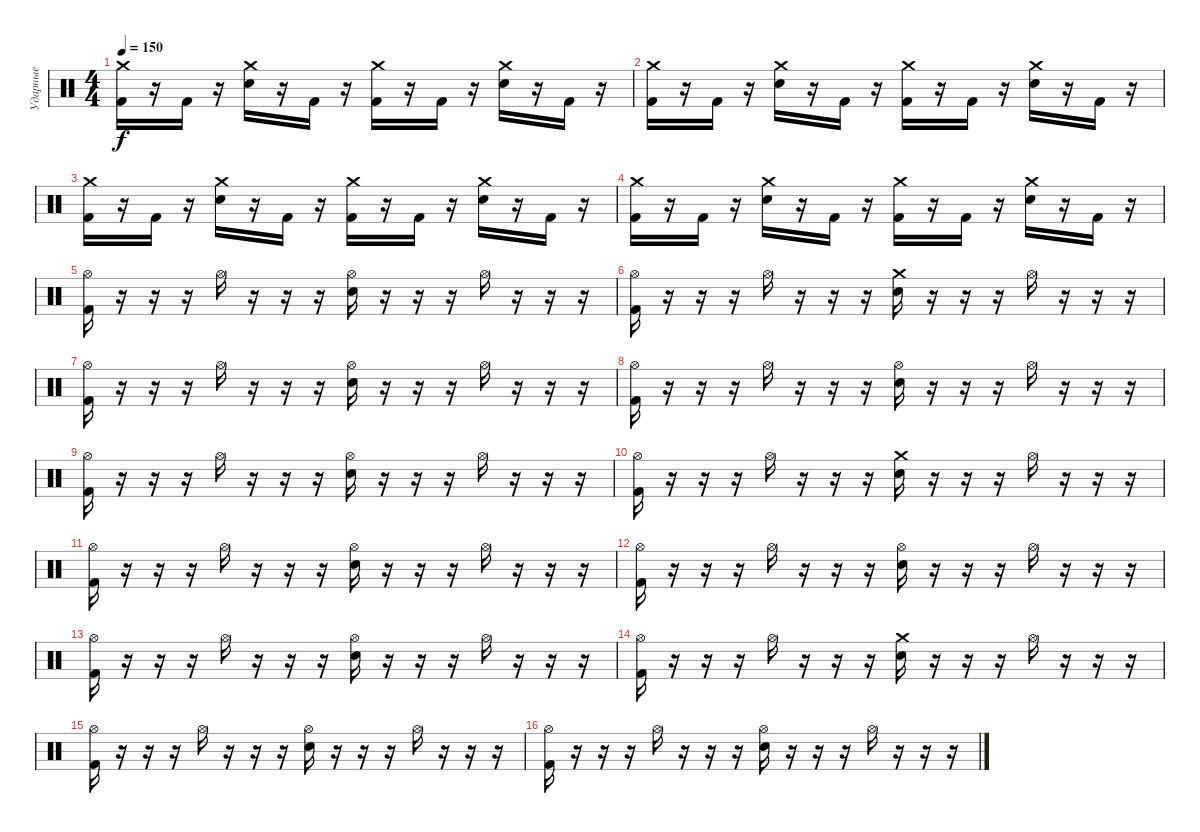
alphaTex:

\track ("Ударные" "Ударные") {instrument percussion}
\staff {score}
\articulation defaults
\ts (4 4)
\tempo 150
\clef neutral
\ks c
("Crash medium (hit)" "Kick (hit) 2").16{dy f} r.16 "Kick (hit) 2".16 r.16 ("Crash medium (hit)" "Electric Snare (hit)").16 r.16 "Kick (hit) 2".16 r.16 ("Crash medium (hit)" "Kick (hit) 2").16 r.16 "Kick (hit) 2".16 r.16 ("Crash medium (hit)" "Electric Snare (hit)").16 r.16 "Kick (hit) 2".16 r.16 |
("Crash medium (hit)" "Kick (hit) 2").16 r.16 "Kick (hit) 2".16 r.16 ("Crash medium (hit)" "Electric Snare (hit)").16 r.16 "Kick (hit) 2".16 r.16 ("Crash medium (hit)" "Kick (hit) 2").16 r.16 "Kick (hit) 2".16 r.16 ("Crash medium (hit)" "Electric Snare (hit)").16 r.16 "Kick (hit) 2".16 r.16 |
("Crash medium (hit)" "Kick (hit) 2").16 r.16 "Kick (hit) 2".16 r.16 ("Crash medium (hit)" "Electric Snare (hit)").16 r.16 "Kick (hit) 2".16 r.16 ("Crash medium (hit)" "Kick (hit) 2").16 r.16 "Kick (hit) 2".16 r.16 ("Crash medium (hit)" "Electric Snare (hit)").16 r.16 "Kick (hit) 2".16 r.16 |
("Crash medium (hit)" "Kick (hit) 2").16 r.16 "Kick (hit) 2".16 r.16 ("Crash medium (hit)" "Electric Snare (hit)").16 r.16 "Kick (hit) 2".16 r.16 ("Crash medium (hit)" "Kick (hit) 2").16 r.16 "Kick (hit) 2".16 r.16 ("Crash medium (hit)" "Electric Snare (hit)").16 r.16 "Kick (hit) 2".16 r.16 |
("Hi-Hat (open)" "Kick (hit) 2").16 r.16 r.16 r.16 "Hi-Hat (open)".16 r.16 r.16 r.16 ("Hi-Hat (open)" "Electric Snare (hit)").16 r.16 r.16 r.16 "Hi-Hat (open)".16 r.16 r.16 r.16 |
("Hi-Hat (open)" "Kick (hit) 2").16 r.16 r.16 r.16 "Hi-Hat (open)".16 r.16 r.16 r.16 ("Crash medium (hit)" "Electric Snare (hit)").16 r.16 r.16 r.16 "Hi-Hat (open)".16 r.16 r.16 r.16 |
("Hi-Hat (open)" "Kick (hit) 2").16 r.16 r.16 r.16 "Hi-Hat (open)".16 r.16 r.16 r.16 ("Hi-Hat (open)" "Electric Snare (hit)").16 r.16 r.16 r.16 "Hi-Hat (open)".16 r.16 r.16 r.16 |
("Hi-Hat (open)" "Kick (hit) 2").16 r.16 r.16 r.16 "Hi-Hat (open)".16 r.16 r.16 r.16 ("Hi-Hat (open)" "Electric Snare (hit)").16 r.16 r.16 r.16 "Hi-Hat (open)".16 r.16 r.16 r.16 |
("Hi-Hat (open)" "Kick (hit) 2").16 r.16 r.16 r.16 "Hi-Hat (open)".16 r.16 r.16 r.16 ("Hi-Hat (open)" "Electric Snare (hit)").16 r.16 r.16 r.16 "Hi-Hat (open)".16 r.16 r.16 r.16 |
("Hi-Hat (open)" "Kick (hit) 2").16 r.16 r.16 r.16 "Hi-Hat (open)".16 r.16 r.16 r.16 ("Crash medium (hit)" "Electric Snare (hit)").16 r.16 r.16 r.16 "Hi-Hat (open)".16 r.16 r.16 r.16 |
("Hi-Hat (open)" "Kick (hit) 2").16 r.16 r.16 r.16 "Hi-Hat (open)".16 r.16 r.16 r.16 ("Hi-Hat (open)" "Electric Snare (hit)").16 r.16 r.16 r.16 "Hi-Hat (open)".16 r.16 r.16 r.16 |
("Hi-Hat (open)" "Kick (hit) 2").16 r.16 r.16 r.16 "Hi-Hat (open)".16 r.16 r.16 r.16 ("Hi-Hat (open)" "Electric Snare (hit)").16 r.16 r.16 r.16 "Hi-Hat (open)".16 r.16 r.16 r.16 |
("Hi-Hat (open)" "Kick (hit) 2").16 r.16 r.16 r.16 "Hi-Hat (open)".16 r.16 r.16 r.16 ("Hi-Hat (open)" "Electric Snare (hit)").16 r.16 r.16 r.16 "Hi-Hat (open)".16 r.16 r.16 r.16 |
("Hi-Hat (open)" "Kick (hit) 2").16 r.16 r.16 r.16 "Hi-Hat (open)".16 r.16 r.16 r.16 ("Crash medium (hit)" "Electric Snare (hit)").16 r.16 r.16 r.16 "Hi-Hat (open)".16 r.16 r.16 r.16 |
("Hi-Hat (open)" "Kick (hit) 2").16 r.16 r.16 r.16 "Hi-Hat (open)".16 r.16 r.16 r.16 ("Hi-Hat (open)" "Electric Snare (hit)").16 r.16 r.16 r.16 "Hi-Hat (open)".16 r.16 r.16 r.16 |
("Hi-Hat (open)" "Kick (hit) 2").16 r.16 r.16 r.16 "Hi-Hat (open)".16 r.16 r.16 r.16 ("Hi-Hat (open)" "Electric Snare (hit)").16 r.16 r.16 r.16 "Hi-Hat (open)".16 r.16 r.16 r.16
